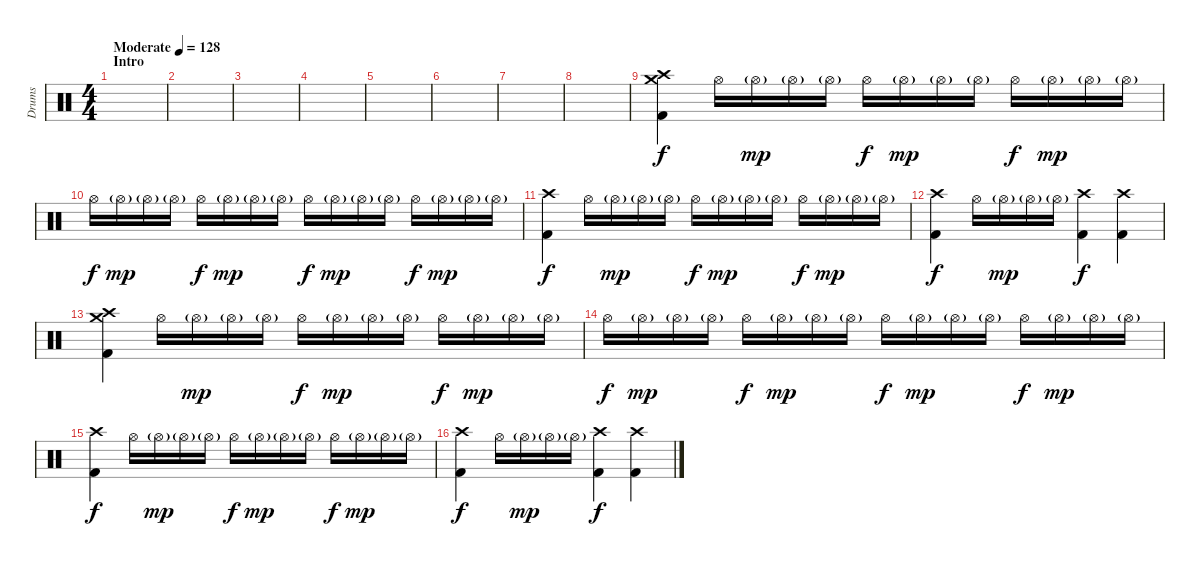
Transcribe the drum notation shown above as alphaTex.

\track ("Drums" "Drums") {instrument percussion}
\staff {score}
\articulation defaults
\ts (4 4)
\section ("" "Intro")
\tempo (128 "Moderate")
\clef neutral
\ks c
|
|
|
|
|
|
|
|
("Crash high (hit)" "Crash medium (hit)" "Kick (hit) 2").4 "Hi-Hat (open)".16 "Hi-Hat (open)"{g}.16{dy mp} "Hi-Hat (open)"{g}.16 "Hi-Hat (open)"{g}.16 "Hi-Hat (open)".16{dy f} "Hi-Hat (open)"{g}.16{dy mp} "Hi-Hat (open)"{g}.16 "Hi-Hat (open)"{g}.16 "Hi-Hat (open)".16{dy f} "Hi-Hat (open)"{g}.16{dy mp} "Hi-Hat (open)"{g}.16 "Hi-Hat (open)"{g}.16 |
"Hi-Hat (open)".16{dy f} "Hi-Hat (open)"{g}.16{dy mp} "Hi-Hat (open)"{g}.16 "Hi-Hat (open)"{g}.16 "Hi-Hat (open)".16{dy f} "Hi-Hat (open)"{g}.16{dy mp} "Hi-Hat (open)"{g}.16 "Hi-Hat (open)"{g}.16 "Hi-Hat (open)".16{dy f} "Hi-Hat (open)"{g}.16{dy mp} "Hi-Hat (open)"{g}.16 "Hi-Hat (open)"{g}.16 "Hi-Hat (open)".16{dy f} "Hi-Hat (open)"{g}.16{dy mp} "Hi-Hat (open)"{g}.16 "Hi-Hat (open)"{g}.16 |
("Crash high (hit)" "Kick (hit) 2").4{dy f} "Hi-Hat (open)".16 "Hi-Hat (open)"{g}.16{dy mp} "Hi-Hat (open)"{g}.16 "Hi-Hat (open)"{g}.16 "Hi-Hat (open)".16{dy f} "Hi-Hat (open)"{g}.16{dy mp} "Hi-Hat (open)"{g}.16 "Hi-Hat (open)"{g}.16 "Hi-Hat (open)".16{dy f} "Hi-Hat (open)"{g}.16{dy mp} "Hi-Hat (open)"{g}.16 "Hi-Hat (open)"{g}.16 |
("Crash high (hit)" "Kick (hit) 2").4{dy f} "Hi-Hat (open)".16 "Hi-Hat (open)"{g}.16{dy mp} "Hi-Hat (open)"{g}.16 "Hi-Hat (open)"{g}.16 ("Crash high (hit)" "Kick (hit) 2").4{dy f} ("Crash high (hit)" "Kick (hit) 2").4 |
("Crash high (hit)" "Crash medium (hit)" "Kick (hit) 2").4 "Hi-Hat (open)".16 "Hi-Hat (open)"{g}.16{dy mp} "Hi-Hat (open)"{g}.16 "Hi-Hat (open)"{g}.16 "Hi-Hat (open)".16{dy f} "Hi-Hat (open)"{g}.16{dy mp} "Hi-Hat (open)"{g}.16 "Hi-Hat (open)"{g}.16 "Hi-Hat (open)".16{dy f} "Hi-Hat (open)"{g}.16{dy mp} "Hi-Hat (open)"{g}.16 "Hi-Hat (open)"{g}.16 |
"Hi-Hat (open)".16{dy f} "Hi-Hat (open)"{g}.16{dy mp} "Hi-Hat (open)"{g}.16 "Hi-Hat (open)"{g}.16 "Hi-Hat (open)".16{dy f} "Hi-Hat (open)"{g}.16{dy mp} "Hi-Hat (open)"{g}.16 "Hi-Hat (open)"{g}.16 "Hi-Hat (open)".16{dy f} "Hi-Hat (open)"{g}.16{dy mp} "Hi-Hat (open)"{g}.16 "Hi-Hat (open)"{g}.16 "Hi-Hat (open)".16{dy f} "Hi-Hat (open)"{g}.16{dy mp} "Hi-Hat (open)"{g}.16 "Hi-Hat (open)"{g}.16 |
("Crash high (hit)" "Kick (hit) 2").4{dy f} "Hi-Hat (open)".16 "Hi-Hat (open)"{g}.16{dy mp} "Hi-Hat (open)"{g}.16 "Hi-Hat (open)"{g}.16 "Hi-Hat (open)".16{dy f} "Hi-Hat (open)"{g}.16{dy mp} "Hi-Hat (open)"{g}.16 "Hi-Hat (open)"{g}.16 "Hi-Hat (open)".16{dy f} "Hi-Hat (open)"{g}.16{dy mp} "Hi-Hat (open)"{g}.16 "Hi-Hat (open)"{g}.16 |
("Crash high (hit)" "Kick (hit) 2").4{dy f} "Hi-Hat (open)".16 "Hi-Hat (open)"{g}.16{dy mp} "Hi-Hat (open)"{g}.16 "Hi-Hat (open)"{g}.16 ("Crash high (hit)" "Kick (hit) 2").4{dy f} ("Crash high (hit)" "Kick (hit) 2").4
